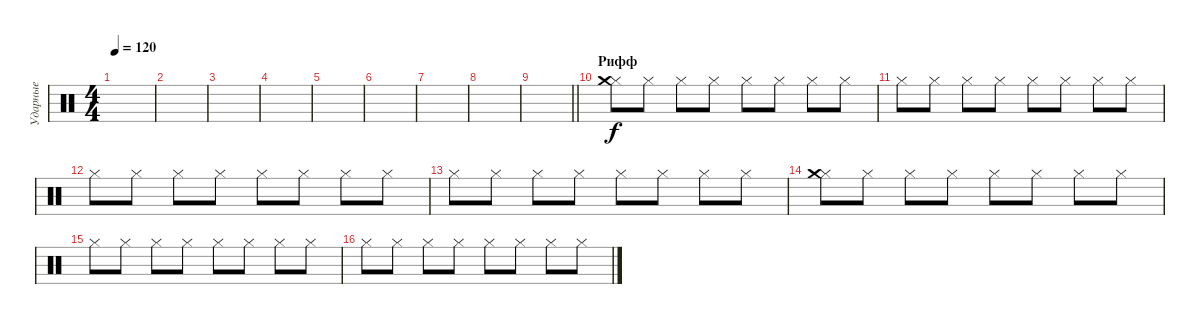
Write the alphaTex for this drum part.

\track ("Ударные" "Ударные") {instrument percussion}
\staff {score}
\articulation defaults
\ts (4 4)
\tempo 120
\clef neutral
\ks c
|
|
|
|
|
|
|
|
\barLineRight lightlight
|
\section ("" "Рифф")
("Hi-Hat (closed)" "Crash medium (hit)").8 "Hi-Hat (closed)".8 "Hi-Hat (closed)".8 "Hi-Hat (closed)".8 "Hi-Hat (closed)".8 "Hi-Hat (closed)".8 "Hi-Hat (closed)".8 "Hi-Hat (closed)".8 |
"Hi-Hat (closed)".8 "Hi-Hat (closed)".8 "Hi-Hat (closed)".8 "Hi-Hat (closed)".8 "Hi-Hat (closed)".8 "Hi-Hat (closed)".8 "Hi-Hat (closed)".8 "Hi-Hat (closed)".8 |
"Hi-Hat (closed)".8 "Hi-Hat (closed)".8 "Hi-Hat (closed)".8 "Hi-Hat (closed)".8 "Hi-Hat (closed)".8 "Hi-Hat (closed)".8 "Hi-Hat (closed)".8 "Hi-Hat (closed)".8 |
"Hi-Hat (closed)".8 "Hi-Hat (closed)".8 "Hi-Hat (closed)".8 "Hi-Hat (closed)".8 "Hi-Hat (closed)".8 "Hi-Hat (closed)".8 "Hi-Hat (closed)".8 "Hi-Hat (closed)".8 |
("Hi-Hat (closed)" "Crash medium (hit)").8 "Hi-Hat (closed)".8 "Hi-Hat (closed)".8 "Hi-Hat (closed)".8 "Hi-Hat (closed)".8 "Hi-Hat (closed)".8 "Hi-Hat (closed)".8 "Hi-Hat (closed)".8 |
"Hi-Hat (closed)".8 "Hi-Hat (closed)".8 "Hi-Hat (closed)".8 "Hi-Hat (closed)".8 "Hi-Hat (closed)".8 "Hi-Hat (closed)".8 "Hi-Hat (closed)".8 "Hi-Hat (closed)".8 |
"Hi-Hat (closed)".8 "Hi-Hat (closed)".8 "Hi-Hat (closed)".8 "Hi-Hat (closed)".8 "Hi-Hat (closed)".8 "Hi-Hat (closed)".8 "Hi-Hat (closed)".8 "Hi-Hat (closed)".8
